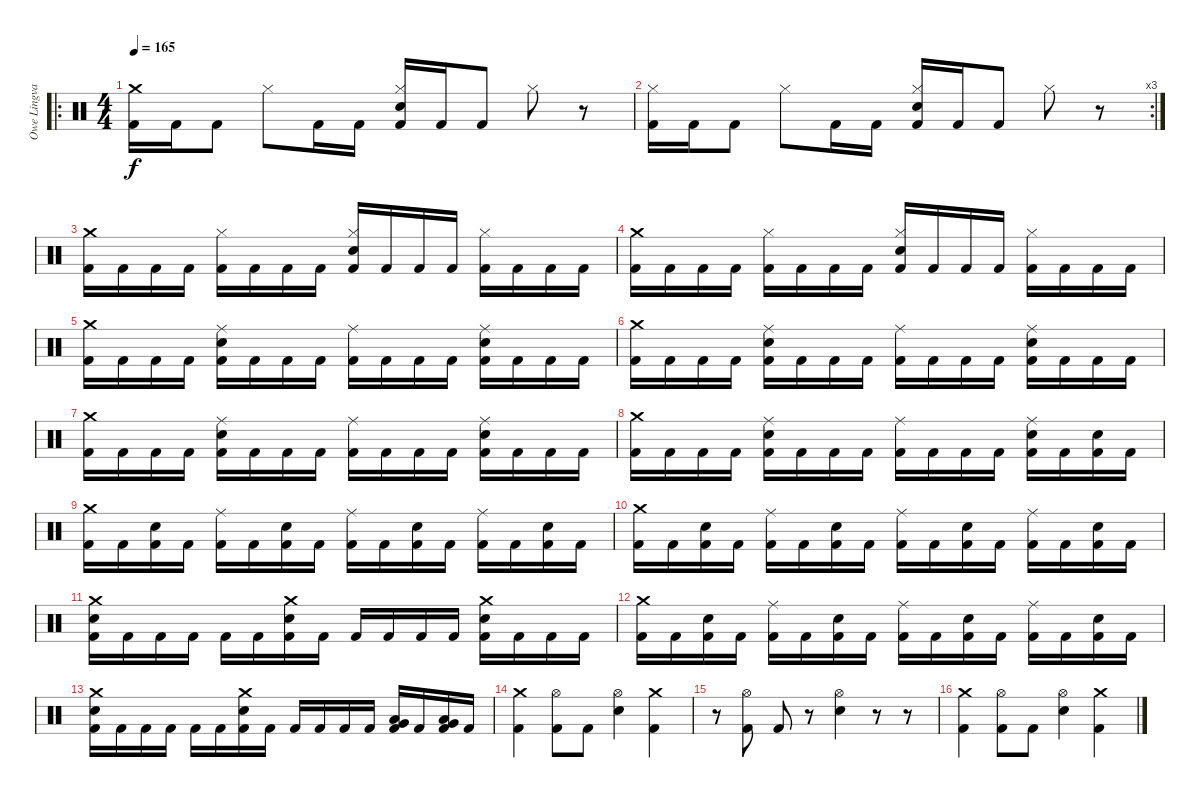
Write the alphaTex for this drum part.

\track ("Owe Lingvall" "Owe Lingva") {instrument percussion}
\staff {score}
\articulation defaults
\ro
\ts (4 4)
\tempo 165
\clef neutral
\ks c
("Crash medium (hit)" "Kick (hit) 2").16{dy f} "Kick (hit) 2".16 "Kick (hit) 2".8 "Hi-Hat (closed)".8 "Kick (hit) 2".16 "Kick (hit) 2".16 ("Hi-Hat (closed)" "Snare (hit) 2" "Kick (hit) 2").16 "Kick (hit) 2".16 "Kick (hit) 2".8 "Hi-Hat (closed)".8 r.8 |
\rc 3
("Hi-Hat (closed)" "Kick (hit) 2").16 "Kick (hit) 2".16 "Kick (hit) 2".8 "Hi-Hat (closed)".8 "Kick (hit) 2".16 "Kick (hit) 2".16 ("Hi-Hat (closed)" "Snare (hit) 2" "Kick (hit) 2").16 "Kick (hit) 2".16 "Kick (hit) 2".8 "Hi-Hat (closed)".8 r.8 |
("Crash medium (hit)" "Kick (hit) 2").16 "Kick (hit) 2".16 "Kick (hit) 2".16 "Kick (hit) 2".16 ("Hi-Hat (closed)" "Kick (hit) 2").16 "Kick (hit) 2".16 "Kick (hit) 2".16 "Kick (hit) 2".16 ("Hi-Hat (closed)" "Snare (hit) 2" "Kick (hit) 2").16 "Kick (hit) 2".16 "Kick (hit) 2".16 "Kick (hit) 2".16 ("Hi-Hat (closed)" "Kick (hit) 2").16 "Kick (hit) 2".16 "Kick (hit) 2".16 "Kick (hit) 2".16 |
("Crash medium (hit)" "Kick (hit) 2").16 "Kick (hit) 2".16 "Kick (hit) 2".16 "Kick (hit) 2".16 ("Hi-Hat (closed)" "Kick (hit) 2").16 "Kick (hit) 2".16 "Kick (hit) 2".16 "Kick (hit) 2".16 ("Hi-Hat (closed)" "Snare (hit) 2" "Kick (hit) 2").16 "Kick (hit) 2".16 "Kick (hit) 2".16 "Kick (hit) 2".16 ("Hi-Hat (closed)" "Kick (hit) 2").16 "Kick (hit) 2".16 "Kick (hit) 2".16 "Kick (hit) 2".16 |
("Crash medium (hit)" "Kick (hit) 2").16 "Kick (hit) 2".16 "Kick (hit) 2".16 "Kick (hit) 2".16 ("Ride (middle)" "Snare (hit) 2" "Kick (hit) 2").16 "Kick (hit) 2".16 "Kick (hit) 2".16 "Kick (hit) 2".16 ("Ride (middle)" "Kick (hit) 2").16 "Kick (hit) 2".16 "Kick (hit) 2".16 "Kick (hit) 2".16 ("Ride (middle)" "Snare (hit) 2" "Kick (hit) 2").16 "Kick (hit) 2".16 "Kick (hit) 2".16 "Kick (hit) 2".16 |
("Crash medium (hit)" "Kick (hit) 2").16 "Kick (hit) 2".16 "Kick (hit) 2".16 "Kick (hit) 2".16 ("Ride (middle)" "Snare (hit) 2" "Kick (hit) 2").16 "Kick (hit) 2".16 "Kick (hit) 2".16 "Kick (hit) 2".16 ("Ride (middle)" "Kick (hit) 2").16 "Kick (hit) 2".16 "Kick (hit) 2".16 "Kick (hit) 2".16 ("Ride (middle)" "Snare (hit) 2" "Kick (hit) 2").16 "Kick (hit) 2".16 "Kick (hit) 2".16 "Kick (hit) 2".16 |
("Crash medium (hit)" "Kick (hit) 2").16 "Kick (hit) 2".16 "Kick (hit) 2".16 "Kick (hit) 2".16 ("Ride (middle)" "Snare (hit) 2" "Kick (hit) 2").16 "Kick (hit) 2".16 "Kick (hit) 2".16 "Kick (hit) 2".16 ("Ride (middle)" "Kick (hit) 2").16 "Kick (hit) 2".16 "Kick (hit) 2".16 "Kick (hit) 2".16 ("Ride (middle)" "Snare (hit) 2" "Kick (hit) 2").16 "Kick (hit) 2".16 "Kick (hit) 2".16 "Kick (hit) 2".16 |
("Crash medium (hit)" "Kick (hit) 2").16 "Kick (hit) 2".16 "Kick (hit) 2".16 "Kick (hit) 2".16 ("Ride (middle)" "Snare (hit) 2" "Kick (hit) 2").16 "Kick (hit) 2".16 "Kick (hit) 2".16 "Kick (hit) 2".16 ("Ride (middle)" "Kick (hit) 2").16 "Kick (hit) 2".16 "Kick (hit) 2".16 "Kick (hit) 2".16 ("Ride (middle)" "Snare (hit) 2" "Kick (hit) 2").16 "Kick (hit) 2".16 ("Snare (hit) 2" "Kick (hit) 2").16 "Kick (hit) 2".16 |
("Crash medium (hit)" "Kick (hit) 2").16 "Kick (hit) 2".16 ("Snare (hit) 2" "Kick (hit) 2").16 "Kick (hit) 2".16 ("Ride (middle)" "Kick (hit) 2").16 "Kick (hit) 2".16 ("Snare (hit) 2" "Kick (hit) 2").16 "Kick (hit) 2".16 ("Ride (middle)" "Kick (hit) 2").16 "Kick (hit) 2".16 ("Snare (hit) 2" "Kick (hit) 2").16 "Kick (hit) 2".16 ("Ride (middle)" "Kick (hit) 2").16 "Kick (hit) 2".16 ("Snare (hit) 2" "Kick (hit) 2").16 "Kick (hit) 2".16 |
("Crash medium (hit)" "Kick (hit) 2").16 "Kick (hit) 2".16 ("Snare (hit) 2" "Kick (hit) 2").16 "Kick (hit) 2".16 ("Ride (middle)" "Kick (hit) 2").16 "Kick (hit) 2".16 ("Snare (hit) 2" "Kick (hit) 2").16 "Kick (hit) 2".16 ("Ride (middle)" "Kick (hit) 2").16 "Kick (hit) 2".16 ("Snare (hit) 2" "Kick (hit) 2").16 "Kick (hit) 2".16 ("Ride (middle)" "Kick (hit) 2").16 "Kick (hit) 2".16 ("Snare (hit) 2" "Kick (hit) 2").16 "Kick (hit) 2".16 |
("Crash medium (hit)" "Snare (hit) 2" "Kick (hit) 2").16 "Kick (hit) 2".16 "Kick (hit) 2".16 "Kick (hit) 2".16 "Kick (hit) 2".16 "Kick (hit) 2".16 ("Crash medium (hit)" "Snare (hit) 2" "Kick (hit) 2").16 "Kick (hit) 2".16 "Kick (hit) 2".16 "Kick (hit) 2".16 "Kick (hit) 2".16 "Kick (hit) 2".16 ("Crash medium (hit)" "Snare (hit) 2" "Kick (hit) 2").16 "Kick (hit) 2".16 "Kick (hit) 2".16 "Kick (hit) 2".16 |
("Crash medium (hit)" "Kick (hit) 2").16 "Kick (hit) 2".16 ("Snare (hit) 2" "Kick (hit) 2").16 "Kick (hit) 2".16 ("Ride (middle)" "Kick (hit) 2").16 "Kick (hit) 2".16 ("Snare (hit) 2" "Kick (hit) 2").16 "Kick (hit) 2".16 ("Ride (middle)" "Kick (hit) 2").16 "Kick (hit) 2".16 ("Snare (hit) 2" "Kick (hit) 2").16 "Kick (hit) 2".16 ("Ride (middle)" "Kick (hit) 2").16 "Kick (hit) 2".16 ("Snare (hit) 2" "Kick (hit) 2").16 "Kick (hit) 2".16 |
("Crash medium (hit)" "Snare (hit) 2" "Kick (hit) 2").16 "Kick (hit) 2".16 "Kick (hit) 2".16 "Kick (hit) 2".16 "Kick (hit) 2".16 "Kick (hit) 2".16 ("Crash medium (hit)" "Snare (hit) 2" "Kick (hit) 2").16 "Kick (hit) 2".16 "Kick (hit) 2".16 "Kick (hit) 2".16 "Kick (hit) 2".16 "Kick (hit) 2".16 ("Low Tom (hit)" "Very Low Tom (hit)" "Kick (hit) 2").16 "Kick (hit) 2".16 ("Very Low Tom (hit)" "Low Floor Tom (hit)" "Kick (hit) 2").16 "Kick (hit) 2".16 |
("Crash medium (hit)" "Kick (hit) 2").4 ("Hi-Hat (open)" "Kick (hit) 2").8 "Kick (hit) 2".8 ("Hi-Hat (open)" "Snare (hit) 2").4 ("Crash medium (hit)" "Kick (hit) 2").4 |
r.8 ("Hi-Hat (open)" "Kick (hit) 2").8 "Kick (hit) 2".8 r.8 ("Hi-Hat (open)" "Snare (hit) 2").4 r.8 r.8 |
("Crash medium (hit)" "Kick (hit) 2").4 ("Hi-Hat (open)" "Kick (hit) 2").8 "Kick (hit) 2".8 ("Hi-Hat (open)" "Snare (hit) 2").4 ("Crash medium (hit)" "Kick (hit) 2").4
